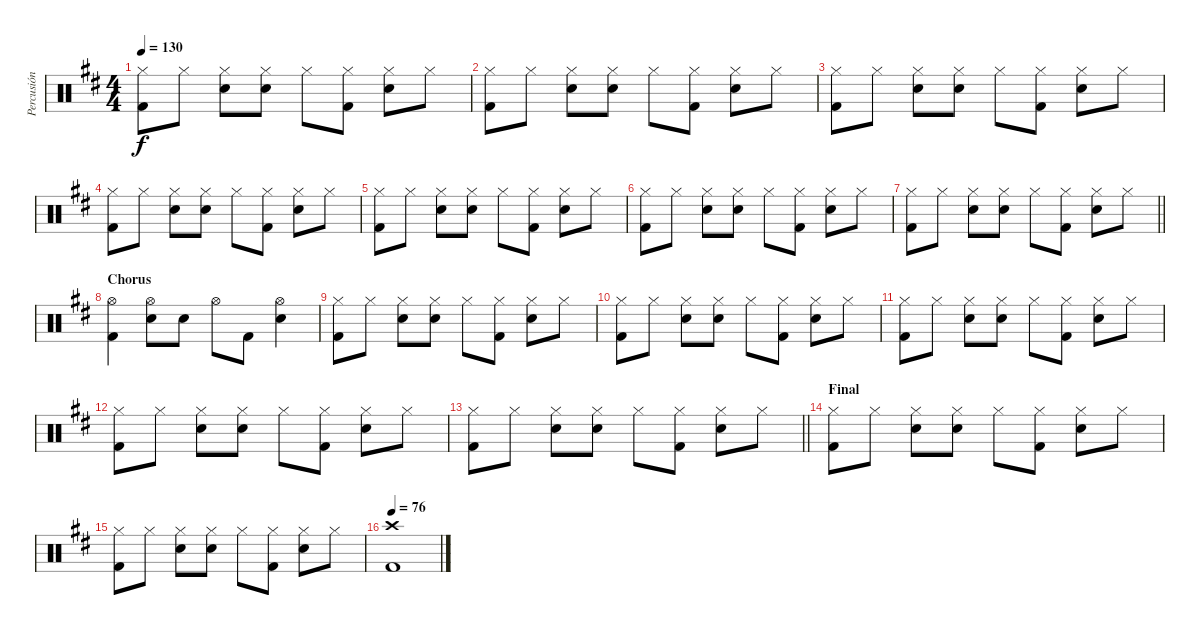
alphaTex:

\track ("Percusión" "Percusión") {instrument percussion}
\staff {score}
\articulation defaults
\ts (4 4)
\tempo 130
\clef neutral
\ks d
("Kick (hit) 2" "Hi-Hat (closed)").8{dy f} "Hi-Hat (closed)".8 ("Snare (hit) 2" "Hi-Hat (closed)").8 ("Snare (hit) 2" "Hi-Hat (closed)").8 "Hi-Hat (closed)".8 ("Kick (hit) 2" "Hi-Hat (closed)").8 ("Snare (hit) 2" "Hi-Hat (closed)").8 "Hi-Hat (closed)".8 |
("Kick (hit) 2" "Hi-Hat (closed)").8 "Hi-Hat (closed)".8 ("Snare (hit) 2" "Hi-Hat (closed)").8 ("Snare (hit) 2" "Hi-Hat (closed)").8 "Hi-Hat (closed)".8 ("Kick (hit) 2" "Hi-Hat (closed)").8 ("Snare (hit) 2" "Hi-Hat (closed)").8 "Hi-Hat (closed)".8 |
("Kick (hit) 2" "Hi-Hat (closed)").8 "Hi-Hat (closed)".8 ("Snare (hit) 2" "Hi-Hat (closed)").8 ("Snare (hit) 2" "Hi-Hat (closed)").8 "Hi-Hat (closed)".8 ("Kick (hit) 2" "Hi-Hat (closed)").8 ("Snare (hit) 2" "Hi-Hat (closed)").8 "Hi-Hat (closed)".8 |
("Kick (hit) 2" "Hi-Hat (closed)").8 "Hi-Hat (closed)".8 ("Snare (hit) 2" "Hi-Hat (closed)").8 ("Snare (hit) 2" "Hi-Hat (closed)").8 "Hi-Hat (closed)".8 ("Kick (hit) 2" "Hi-Hat (closed)").8 ("Snare (hit) 2" "Hi-Hat (closed)").8 "Hi-Hat (closed)".8 |
("Kick (hit) 2" "Hi-Hat (closed)").8 "Hi-Hat (closed)".8 ("Snare (hit) 2" "Hi-Hat (closed)").8 ("Snare (hit) 2" "Hi-Hat (closed)").8 "Hi-Hat (closed)".8 ("Kick (hit) 2" "Hi-Hat (closed)").8 ("Snare (hit) 2" "Hi-Hat (closed)").8 "Hi-Hat (closed)".8 |
("Kick (hit) 2" "Hi-Hat (closed)").8 "Hi-Hat (closed)".8 ("Snare (hit) 2" "Hi-Hat (closed)").8 ("Snare (hit) 2" "Hi-Hat (closed)").8 "Hi-Hat (closed)".8 ("Kick (hit) 2" "Hi-Hat (closed)").8 ("Snare (hit) 2" "Hi-Hat (closed)").8 "Hi-Hat (closed)".8 |
\barLineRight lightlight
("Kick (hit) 2" "Hi-Hat (closed)").8 "Hi-Hat (closed)".8 ("Snare (hit) 2" "Hi-Hat (closed)").8 ("Snare (hit) 2" "Hi-Hat (closed)").8 "Hi-Hat (closed)".8 ("Kick (hit) 2" "Hi-Hat (closed)").8 ("Snare (hit) 2" "Hi-Hat (closed)").8 "Hi-Hat (closed)".8 |
\section ("" "Chorus")
("Kick (hit) 2" "Hi-Hat (open)").4 ("Snare (hit) 2" "Hi-Hat (open)").8 "Snare (hit) 2".8 "Hi-Hat (open)".8 "Kick (hit) 2".8 ("Snare (hit) 2" "Hi-Hat (open)").4 |
("Kick (hit) 2" "Hi-Hat (closed)").8 "Hi-Hat (closed)".8 ("Snare (hit) 2" "Hi-Hat (closed)").8 ("Snare (hit) 2" "Hi-Hat (closed)").8 "Hi-Hat (closed)".8 ("Kick (hit) 2" "Hi-Hat (closed)").8 ("Snare (hit) 2" "Hi-Hat (closed)").8 "Hi-Hat (closed)".8 |
("Kick (hit) 2" "Hi-Hat (closed)").8 "Hi-Hat (closed)".8 ("Snare (hit) 2" "Hi-Hat (closed)").8 ("Snare (hit) 2" "Hi-Hat (closed)").8 "Hi-Hat (closed)".8 ("Kick (hit) 2" "Hi-Hat (closed)").8 ("Snare (hit) 2" "Hi-Hat (closed)").8 "Hi-Hat (closed)".8 |
("Kick (hit) 2" "Hi-Hat (closed)").8 "Hi-Hat (closed)".8 ("Snare (hit) 2" "Hi-Hat (closed)").8 ("Snare (hit) 2" "Hi-Hat (closed)").8 "Hi-Hat (closed)".8 ("Kick (hit) 2" "Hi-Hat (closed)").8 ("Snare (hit) 2" "Hi-Hat (closed)").8 "Hi-Hat (closed)".8 |
("Kick (hit) 2" "Hi-Hat (closed)").8 "Hi-Hat (closed)".8 ("Snare (hit) 2" "Hi-Hat (closed)").8 ("Snare (hit) 2" "Hi-Hat (closed)").8 "Hi-Hat (closed)".8 ("Kick (hit) 2" "Hi-Hat (closed)").8 ("Snare (hit) 2" "Hi-Hat (closed)").8 "Hi-Hat (closed)".8 |
\barLineRight lightlight
("Kick (hit) 2" "Hi-Hat (closed)").8 "Hi-Hat (closed)".8 ("Snare (hit) 2" "Hi-Hat (closed)").8 ("Snare (hit) 2" "Hi-Hat (closed)").8 "Hi-Hat (closed)".8 ("Kick (hit) 2" "Hi-Hat (closed)").8 ("Snare (hit) 2" "Hi-Hat (closed)").8 "Hi-Hat (closed)".8 |
\section ("" "Final")
("Kick (hit) 2" "Hi-Hat (closed)").8 "Hi-Hat (closed)".8 ("Snare (hit) 2" "Hi-Hat (closed)").8 ("Snare (hit) 2" "Hi-Hat (closed)").8 "Hi-Hat (closed)".8 ("Kick (hit) 2" "Hi-Hat (closed)").8 ("Snare (hit) 2" "Hi-Hat (closed)").8 "Hi-Hat (closed)".8 |
("Kick (hit) 2" "Hi-Hat (closed)").8 "Hi-Hat (closed)".8 ("Snare (hit) 2" "Hi-Hat (closed)").8 ("Snare (hit) 2" "Hi-Hat (closed)").8 "Hi-Hat (closed)".8 ("Kick (hit) 2" "Hi-Hat (closed)").8 ("Snare (hit) 2" "Hi-Hat (closed)").8 "Hi-Hat (closed)".8 |
\tempo 76
("Kick (hit) 2" "Crash high (hit)").1
